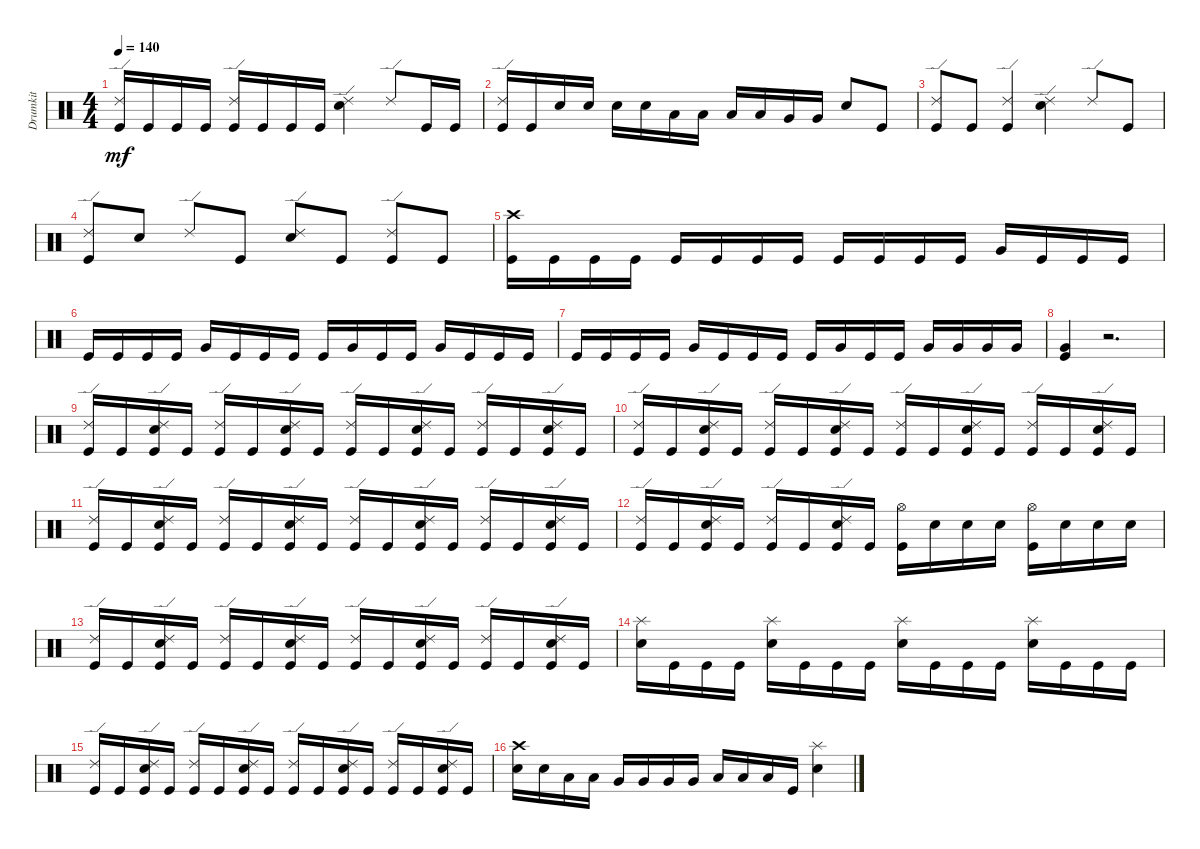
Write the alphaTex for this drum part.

\track ("Drumkit" "Drumkit") {instrument percussion}
\staff {score}
\articulation defaults
\ts (4 4)
\tempo 140
\clef neutral
\ks c
("Kick (hit)" "Ride (edge) 2").16{dy mf} "Kick (hit)".16 "Kick (hit)".16 "Kick (hit)".16 ("Kick (hit)" "Ride (edge) 2").16 "Kick (hit)".16 "Kick (hit)".16 "Kick (hit)".16 ("Snare (hit) 2" "Ride (edge) 2").4 "Ride (edge) 2".8 "Kick (hit)".16 "Kick (hit)".16 |
("Kick (hit)" "Ride (edge) 2").16 "Kick (hit)".16 "Snare (hit) 2".16 "Snare (hit) 2".16 "Snare (hit) 2".16 "Snare (hit) 2".16 "Low Tom (hit)".16 "Low Tom (hit)".16 "Low Tom (hit)".16 "Low Tom (hit)".16 "Very Low Tom (hit)".16 "Very Low Tom (hit)".16 "Snare (hit) 2".8 "Kick (hit)".8 |
("Kick (hit)" "Ride (edge) 2").8 "Kick (hit)".8 ("Kick (hit)" "Ride (edge) 2").4 ("Snare (hit) 2" "Ride (edge) 2").4 "Ride (edge) 2".8 "Kick (hit)".8 |
("Kick (hit)" "Ride (edge) 2").8 "Snare (hit) 2".8 "Ride (edge) 2".8 "Kick (hit)".8 ("Snare (hit) 2" "Ride (edge) 2").8 "Kick (hit)".8 ("Kick (hit)" "Ride (edge) 2").8 "Kick (hit)".8 |
("Kick (hit)" "Crash high (hit)").16 "Kick (hit)".16 "Kick (hit)".16 "Kick (hit)".16 "Kick (hit)".16 "Kick (hit)".16 "Kick (hit)".16 "Kick (hit)".16 "Kick (hit)".16 "Kick (hit)".16 "Kick (hit)".16 "Kick (hit)".16 "Very Low Tom (hit)".16 "Kick (hit)".16 "Kick (hit)".16 "Kick (hit)".16 |
"Kick (hit)".16 "Kick (hit)".16 "Kick (hit)".16 "Kick (hit)".16 "Very Low Tom (hit)".16 "Kick (hit)".16 "Kick (hit)".16 "Kick (hit)".16 "Kick (hit)".16 "Very Low Tom (hit)".16 "Kick (hit)".16 "Kick (hit)".16 "Very Low Tom (hit)".16 "Kick (hit)".16 "Kick (hit)".16 "Kick (hit)".16 |
"Kick (hit)".16 "Kick (hit)".16 "Kick (hit)".16 "Kick (hit)".16 "Very Low Tom (hit)".16 "Kick (hit)".16 "Kick (hit)".16 "Kick (hit)".16 "Kick (hit)".16 "Very Low Tom (hit)".16 "Kick (hit)".16 "Kick (hit)".16 "Very Low Tom (hit)".16 "Very Low Tom (hit)".16 "Very Low Tom (hit)".16 "Very Low Tom (hit)".16 |
("Kick (hit)" "Very Low Tom (hit)").4 r.2{d} |
("Kick (hit)" "Ride (edge) 2").16 "Kick (hit)".16 ("Ride (edge) 2" "Snare (hit) 2" "Kick (hit)").16 "Kick (hit)".16 ("Kick (hit)" "Ride (edge) 2").16 "Kick (hit)".16 ("Ride (edge) 2" "Snare (hit) 2" "Kick (hit)").16 "Kick (hit)".16 ("Kick (hit)" "Ride (edge) 2").16 "Kick (hit)".16 ("Ride (edge) 2" "Snare (hit) 2" "Kick (hit)").16 "Kick (hit)".16 ("Kick (hit)" "Ride (edge) 2").16 "Kick (hit)".16 ("Ride (edge) 2" "Snare (hit) 2" "Kick (hit)").16 "Kick (hit)".16 |
("Kick (hit)" "Ride (edge) 2").16 "Kick (hit)".16 ("Ride (edge) 2" "Snare (hit) 2" "Kick (hit)").16 "Kick (hit)".16 ("Kick (hit)" "Ride (edge) 2").16 "Kick (hit)".16 ("Ride (edge) 2" "Snare (hit) 2" "Kick (hit)").16 "Kick (hit)".16 ("Kick (hit)" "Ride (edge) 2").16 "Kick (hit)".16 ("Ride (edge) 2" "Snare (hit) 2" "Kick (hit)").16 "Kick (hit)".16 ("Kick (hit)" "Ride (edge) 2").16 "Kick (hit)".16 ("Ride (edge) 2" "Snare (hit) 2" "Kick (hit)").16 "Kick (hit)".16 |
("Kick (hit)" "Ride (edge) 2").16 "Kick (hit)".16 ("Ride (edge) 2" "Snare (hit) 2" "Kick (hit)").16 "Kick (hit)".16 ("Kick (hit)" "Ride (edge) 2").16 "Kick (hit)".16 ("Ride (edge) 2" "Snare (hit) 2" "Kick (hit)").16 "Kick (hit)".16 ("Kick (hit)" "Ride (edge) 2").16 "Kick (hit)".16 ("Ride (edge) 2" "Snare (hit) 2" "Kick (hit)").16 "Kick (hit)".16 ("Kick (hit)" "Ride (edge) 2").16 "Kick (hit)".16 ("Ride (edge) 2" "Snare (hit) 2" "Kick (hit)").16 "Kick (hit)".16 |
("Kick (hit)" "Ride (edge) 2").16 "Kick (hit)".16 ("Ride (edge) 2" "Snare (hit) 2" "Kick (hit)").16 "Kick (hit)".16 ("Kick (hit)" "Ride (edge) 2").16 "Kick (hit)".16 ("Ride (edge) 2" "Snare (hit) 2" "Kick (hit)").16 "Kick (hit)".16 ("Kick (hit)" "Hi-Hat (open)").16 "Snare (hit) 2".16 "Snare (hit) 2".16 "Snare (hit) 2".16 ("Kick (hit)" "Hi-Hat (open)").16 "Snare (hit) 2".16 "Snare (hit) 2".16 "Snare (hit) 2".16 |
("Kick (hit)" "Ride (edge) 2").16 "Kick (hit)".16 ("Ride (edge) 2" "Snare (hit) 2" "Kick (hit)").16 "Kick (hit)".16 ("Kick (hit)" "Ride (edge) 2").16 "Kick (hit)".16 ("Ride (edge) 2" "Snare (hit) 2" "Kick (hit)").16 "Kick (hit)".16 ("Kick (hit)" "Ride (edge) 2").16 "Kick (hit)".16 ("Ride (edge) 2" "Snare (hit) 2" "Kick (hit)").16 "Kick (hit)".16 ("Kick (hit)" "Ride (edge) 2").16 "Kick (hit)".16 ("Ride (edge) 2" "Snare (hit) 2" "Kick (hit)").16 "Kick (hit)".16 |
("Snare (hit) 2" "Splash (hit)").16 "Kick (hit)".16 "Kick (hit)".16 "Kick (hit)".16 ("Snare (hit) 2" "Splash (hit)").16 "Kick (hit)".16 "Kick (hit)".16 "Kick (hit)".16 ("Snare (hit) 2" "Splash (hit)").16 "Kick (hit)".16 "Kick (hit)".16 "Kick (hit)".16 ("Snare (hit) 2" "Splash (hit)").16 "Kick (hit)".16 "Kick (hit)".16 "Kick (hit)".16 |
("Kick (hit)" "Ride (edge) 2").16 "Kick (hit)".16 ("Ride (edge) 2" "Snare (hit) 2" "Kick (hit)").16 "Kick (hit)".16 ("Kick (hit)" "Ride (edge) 2").16 "Kick (hit)".16 ("Ride (edge) 2" "Snare (hit) 2" "Kick (hit)").16 "Kick (hit)".16 ("Kick (hit)" "Ride (edge) 2").16 "Kick (hit)".16 ("Ride (edge) 2" "Snare (hit) 2" "Kick (hit)").16 "Kick (hit)".16 ("Kick (hit)" "Ride (edge) 2").16 "Kick (hit)".16 ("Ride (edge) 2" "Snare (hit) 2" "Kick (hit)").16 "Kick (hit)".16 |
("Snare (hit) 2" "Crash high (hit)").16 "Snare (hit) 2".16 "Low Tom (hit)".16 "Low Tom (hit)".16 "Very Low Tom (hit)".16 "Very Low Tom (hit)".16 "Very Low Tom (hit)".16 "Very Low Tom (hit)".16 "Low Floor Tom (hit)".16 "Low Floor Tom (hit)".16 "Low Floor Tom (hit)".16 "Kick (hit)".16 ("Snare (hit) 2" "Splash (hit)").4
